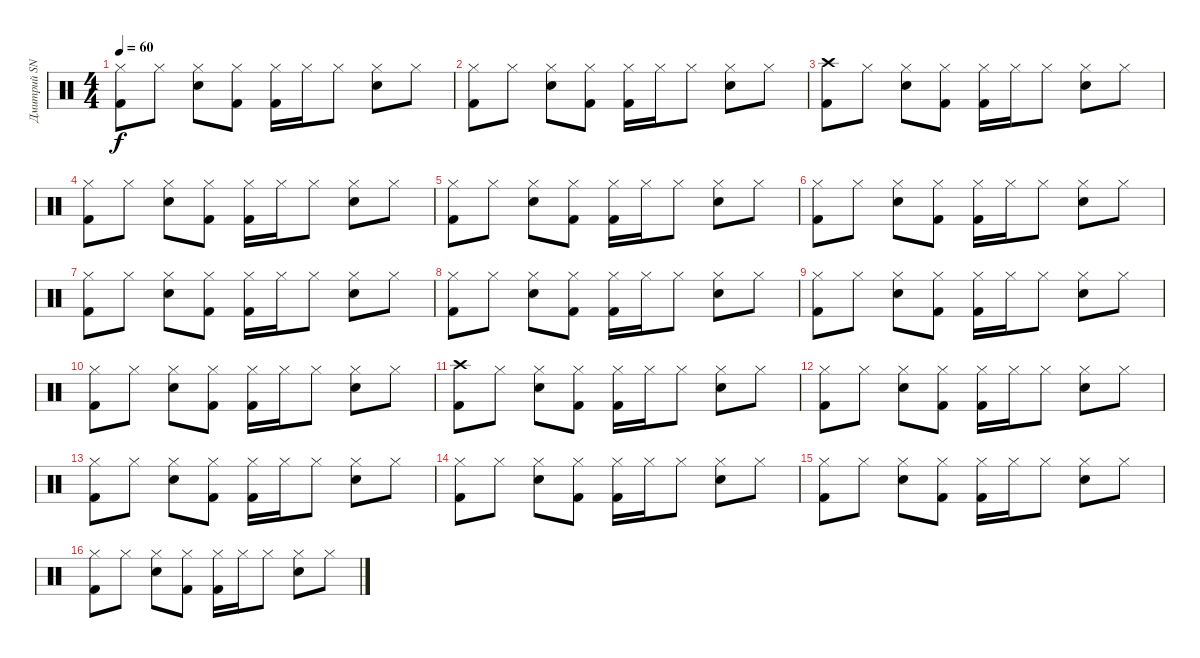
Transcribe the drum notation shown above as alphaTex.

\track ("Дмитрий SNAKE Хакимов" "Дмитрий SN") {instrument percussion}
\staff {score}
\articulation defaults
\ts (4 4)
\tempo 60
\clef neutral
\ks c
("Hi-Hat (closed)" "Kick (hit) 2").8{dy f} "Hi-Hat (closed)".8 ("Hi-Hat (closed)" "Electric Snare (hit)").8 ("Hi-Hat (closed)" "Kick (hit) 2").8 ("Hi-Hat (closed)" "Kick (hit) 2").16 "Hi-Hat (closed)".16 "Hi-Hat (closed)".8 ("Hi-Hat (closed)" "Electric Snare (hit)").8 "Hi-Hat (closed)".8 |
("Hi-Hat (closed)" "Kick (hit) 2").8 "Hi-Hat (closed)".8 ("Hi-Hat (closed)" "Electric Snare (hit)").8 ("Hi-Hat (closed)" "Kick (hit) 2").8 ("Hi-Hat (closed)" "Kick (hit) 2").16 "Hi-Hat (closed)".16 "Hi-Hat (closed)".8 ("Hi-Hat (closed)" "Electric Snare (hit)").8 "Hi-Hat (closed)".8 |
("Crash high (hit)" "Kick (hit) 2").8 "Hi-Hat (closed)".8 ("Hi-Hat (closed)" "Electric Snare (hit)").8 ("Hi-Hat (closed)" "Kick (hit) 2").8 ("Hi-Hat (closed)" "Kick (hit) 2").16 "Hi-Hat (closed)".16 "Hi-Hat (closed)".8 ("Hi-Hat (closed)" "Electric Snare (hit)").8 "Hi-Hat (closed)".8 |
("Hi-Hat (closed)" "Kick (hit) 2").8 "Hi-Hat (closed)".8 ("Hi-Hat (closed)" "Electric Snare (hit)").8 ("Hi-Hat (closed)" "Kick (hit) 2").8 ("Hi-Hat (closed)" "Kick (hit) 2").16 "Hi-Hat (closed)".16 "Hi-Hat (closed)".8 ("Hi-Hat (closed)" "Electric Snare (hit)").8 "Hi-Hat (closed)".8 |
("Hi-Hat (closed)" "Kick (hit) 2").8 "Hi-Hat (closed)".8 ("Hi-Hat (closed)" "Electric Snare (hit)").8 ("Hi-Hat (closed)" "Kick (hit) 2").8 ("Hi-Hat (closed)" "Kick (hit) 2").16 "Hi-Hat (closed)".16 "Hi-Hat (closed)".8 ("Hi-Hat (closed)" "Electric Snare (hit)").8 "Hi-Hat (closed)".8 |
("Hi-Hat (closed)" "Kick (hit) 2").8 "Hi-Hat (closed)".8 ("Hi-Hat (closed)" "Electric Snare (hit)").8 ("Hi-Hat (closed)" "Kick (hit) 2").8 ("Hi-Hat (closed)" "Kick (hit) 2").16 "Hi-Hat (closed)".16 "Hi-Hat (closed)".8 ("Hi-Hat (closed)" "Electric Snare (hit)").8 "Hi-Hat (closed)".8 |
("Hi-Hat (closed)" "Kick (hit) 2").8 "Hi-Hat (closed)".8 ("Hi-Hat (closed)" "Electric Snare (hit)").8 ("Hi-Hat (closed)" "Kick (hit) 2").8 ("Hi-Hat (closed)" "Kick (hit) 2").16 "Hi-Hat (closed)".16 "Hi-Hat (closed)".8 ("Hi-Hat (closed)" "Electric Snare (hit)").8 "Hi-Hat (closed)".8 |
("Hi-Hat (closed)" "Kick (hit) 2").8 "Hi-Hat (closed)".8 ("Hi-Hat (closed)" "Electric Snare (hit)").8 ("Hi-Hat (closed)" "Kick (hit) 2").8 ("Hi-Hat (closed)" "Kick (hit) 2").16 "Hi-Hat (closed)".16 "Hi-Hat (closed)".8 ("Hi-Hat (closed)" "Electric Snare (hit)").8 "Hi-Hat (closed)".8 |
("Hi-Hat (closed)" "Kick (hit) 2").8 "Hi-Hat (closed)".8 ("Hi-Hat (closed)" "Electric Snare (hit)").8 ("Hi-Hat (closed)" "Kick (hit) 2").8 ("Hi-Hat (closed)" "Kick (hit) 2").16 "Hi-Hat (closed)".16 "Hi-Hat (closed)".8 ("Hi-Hat (closed)" "Electric Snare (hit)").8 "Hi-Hat (closed)".8 |
("Hi-Hat (closed)" "Kick (hit) 2").8 "Hi-Hat (closed)".8 ("Hi-Hat (closed)" "Electric Snare (hit)").8 ("Hi-Hat (closed)" "Kick (hit) 2").8 ("Hi-Hat (closed)" "Kick (hit) 2").16 "Hi-Hat (closed)".16 "Hi-Hat (closed)".8 ("Hi-Hat (closed)" "Electric Snare (hit)").8 "Hi-Hat (closed)".8 |
("Crash high (hit)" "Kick (hit) 2").8 "Hi-Hat (closed)".8 ("Hi-Hat (closed)" "Electric Snare (hit)").8 ("Hi-Hat (closed)" "Kick (hit) 2").8 ("Hi-Hat (closed)" "Kick (hit) 2").16 "Hi-Hat (closed)".16 "Hi-Hat (closed)".8 ("Hi-Hat (closed)" "Electric Snare (hit)").8 "Hi-Hat (closed)".8 |
("Hi-Hat (closed)" "Kick (hit) 2").8 "Hi-Hat (closed)".8 ("Hi-Hat (closed)" "Electric Snare (hit)").8 ("Hi-Hat (closed)" "Kick (hit) 2").8 ("Hi-Hat (closed)" "Kick (hit) 2").16 "Hi-Hat (closed)".16 "Hi-Hat (closed)".8 ("Hi-Hat (closed)" "Electric Snare (hit)").8 "Hi-Hat (closed)".8 |
("Hi-Hat (closed)" "Kick (hit) 2").8 "Hi-Hat (closed)".8 ("Hi-Hat (closed)" "Electric Snare (hit)").8 ("Hi-Hat (closed)" "Kick (hit) 2").8 ("Hi-Hat (closed)" "Kick (hit) 2").16 "Hi-Hat (closed)".16 "Hi-Hat (closed)".8 ("Hi-Hat (closed)" "Electric Snare (hit)").8 "Hi-Hat (closed)".8 |
("Hi-Hat (closed)" "Kick (hit) 2").8 "Hi-Hat (closed)".8 ("Hi-Hat (closed)" "Electric Snare (hit)").8 ("Hi-Hat (closed)" "Kick (hit) 2").8 ("Hi-Hat (closed)" "Kick (hit) 2").16 "Hi-Hat (closed)".16 "Hi-Hat (closed)".8 ("Hi-Hat (closed)" "Electric Snare (hit)").8 "Hi-Hat (closed)".8 |
("Hi-Hat (closed)" "Kick (hit) 2").8 "Hi-Hat (closed)".8 ("Hi-Hat (closed)" "Electric Snare (hit)").8 ("Hi-Hat (closed)" "Kick (hit) 2").8 ("Hi-Hat (closed)" "Kick (hit) 2").16 "Hi-Hat (closed)".16 "Hi-Hat (closed)".8 ("Hi-Hat (closed)" "Electric Snare (hit)").8 "Hi-Hat (closed)".8 |
("Hi-Hat (closed)" "Kick (hit) 2").8 "Hi-Hat (closed)".8 ("Hi-Hat (closed)" "Electric Snare (hit)").8 ("Hi-Hat (closed)" "Kick (hit) 2").8 ("Hi-Hat (closed)" "Kick (hit) 2").16 "Hi-Hat (closed)".16 "Hi-Hat (closed)".8 ("Hi-Hat (closed)" "Electric Snare (hit)").8 "Hi-Hat (closed)".8
